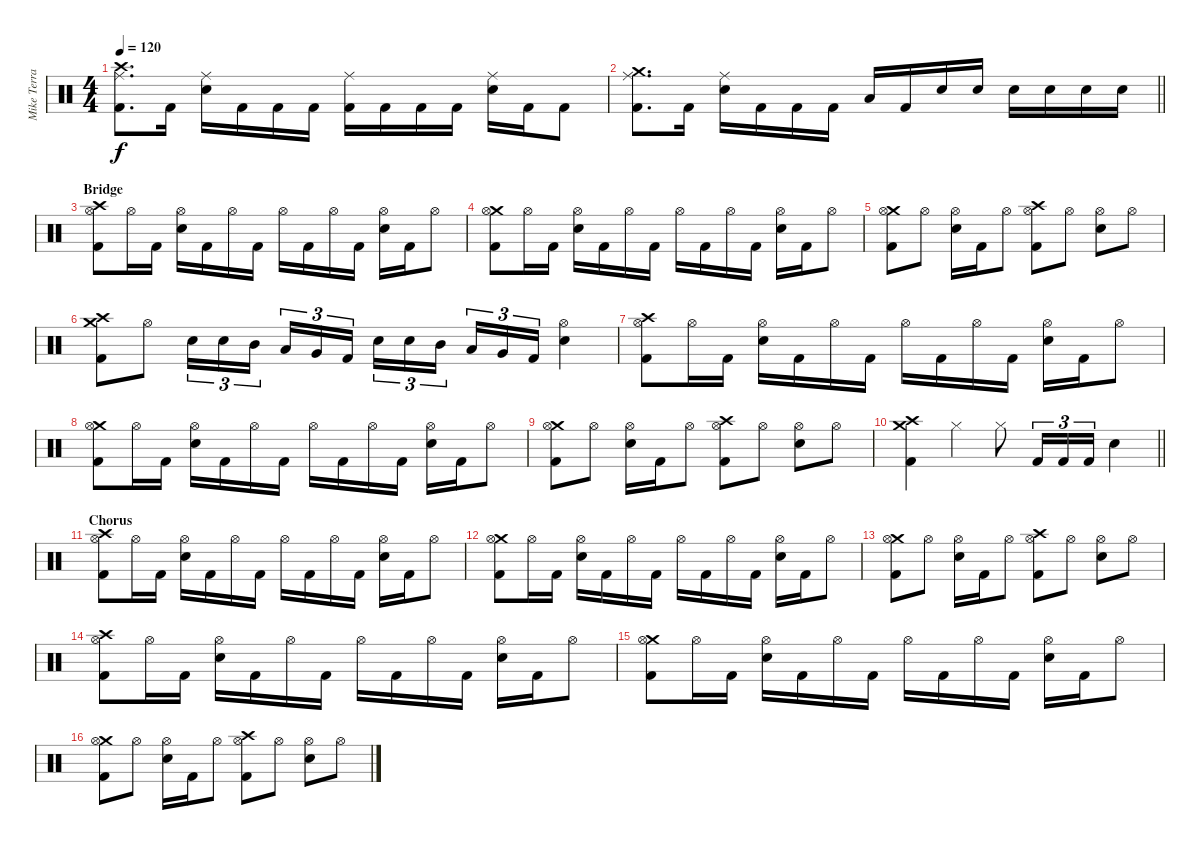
\track ("Mike Terrana" "Mike Terra") {instrument percussion}
\staff {score}
\articulation defaults
\ts (4 4)
\tempo 120
\clef neutral
\ks c
("Crash high (hit)" "Ride (middle)" "Kick (hit) 2").8{d dy f} "Kick (hit) 2".16 ("Ride (middle)" "Snare (hit) 2").16 "Kick (hit) 2".16 "Kick (hit) 2".16 "Kick (hit) 2".16 ("Ride (middle)" "Kick (hit) 2").16 "Kick (hit) 2".16 "Kick (hit) 2".16 "Kick (hit) 2".16 ("Ride (middle)" "Snare (hit) 2").16 "Kick (hit) 2".16 "Kick (hit) 2".8 |
\barLineRight lightlight
("Crash medium (hit)" "Ride (middle)" "Kick (hit) 2").8{d} "Kick (hit) 2".16 ("Ride (middle)" "Snare (hit) 2").16 "Kick (hit) 2".16 "Kick (hit) 2".16 "Kick (hit) 2".16 "Low Tom (hit)".16 "Kick (hit) 2".16 "Snare (hit) 2".16 "Snare (hit) 2".16 "Snare (hit) 2".16 "Snare (hit) 2".16 "Snare (hit) 2".16 "Snare (hit) 2".16 |
\section ("" "Bridge")
("Crash high (hit)" "Hi-Hat (open)" "Kick (hit) 2").8 "Hi-Hat (open)".16 "Kick (hit) 2".16 ("Hi-Hat (open)" "Snare (hit) 2").16 "Kick (hit) 2".16 "Hi-Hat (open)".16 "Kick (hit) 2".16 "Hi-Hat (open)".16 "Kick (hit) 2".16 "Hi-Hat (open)".16 "Kick (hit) 2".16 ("Hi-Hat (open)" "Snare (hit) 2").16 "Kick (hit) 2".16 "Hi-Hat (open)".8 |
("Crash medium (hit)" "Hi-Hat (open)" "Kick (hit) 2").8 "Hi-Hat (open)".16 "Kick (hit) 2".16 ("Hi-Hat (open)" "Snare (hit) 2").16 "Kick (hit) 2".16 "Hi-Hat (open)".16 "Kick (hit) 2".16 "Hi-Hat (open)".16 "Kick (hit) 2".16 "Hi-Hat (open)".16 "Kick (hit) 2".16 ("Hi-Hat (open)" "Snare (hit) 2").16 "Kick (hit) 2".16 "Hi-Hat (open)".8 |
("Crash medium (hit)" "Hi-Hat (open)" "Kick (hit) 2").8 "Hi-Hat (open)".8 ("Hi-Hat (open)" "Snare (hit) 2").16 "Kick (hit) 2".16 "Hi-Hat (open)".8 ("Crash high (hit)" "Hi-Hat (open)" "Kick (hit) 2").8 "Hi-Hat (open)".8 ("Hi-Hat (open)" "Snare (hit) 2").8 "Hi-Hat (open)".8 |
("Crash high (hit)" "Crash medium (hit)" "Kick (hit) 2").8 "Hi-Hat (open)".8 "Snare (hit) 2".16{tu (3 2)} "Snare (hit) 2".16{tu (3 2)} "Mid Tom (hit)".16{tu (3 2) beam splitsecondary} "Low Tom (hit)".16{tu (3 2)} "Very Low Tom (hit)".16{tu (3 2)} "Kick (hit) 2".16{tu (3 2)} "Snare (hit) 2".16{tu (3 2)} "Snare (hit) 2".16{tu (3 2)} "Mid Tom (hit)".16{tu (3 2) beam splitsecondary} "Low Tom (hit)".16{tu (3 2)} "Very Low Tom (hit)".16{tu (3 2)} "Kick (hit) 2".16{tu (3 2)} ("Hi-Hat (open)" "Snare (hit) 2").4 |
("Crash high (hit)" "Hi-Hat (open)" "Kick (hit) 2").8 "Hi-Hat (open)".16 "Kick (hit) 2".16 ("Hi-Hat (open)" "Snare (hit) 2").16 "Kick (hit) 2".16 "Hi-Hat (open)".16 "Kick (hit) 2".16 "Hi-Hat (open)".16 "Kick (hit) 2".16 "Hi-Hat (open)".16 "Kick (hit) 2".16 ("Hi-Hat (open)" "Snare (hit) 2").16 "Kick (hit) 2".16 "Hi-Hat (open)".8 |
("Crash medium (hit)" "Hi-Hat (open)" "Kick (hit) 2").8 "Hi-Hat (open)".16 "Kick (hit) 2".16 ("Hi-Hat (open)" "Snare (hit) 2").16 "Kick (hit) 2".16 "Hi-Hat (open)".16 "Kick (hit) 2".16 "Hi-Hat (open)".16 "Kick (hit) 2".16 "Hi-Hat (open)".16 "Kick (hit) 2".16 ("Hi-Hat (open)" "Snare (hit) 2").16 "Kick (hit) 2".16 "Hi-Hat (open)".8 |
("Crash medium (hit)" "Hi-Hat (open)" "Kick (hit) 2").8 "Hi-Hat (open)".8 ("Hi-Hat (open)" "Snare (hit) 2").16 "Kick (hit) 2".16 "Hi-Hat (open)".8 ("Crash high (hit)" "Hi-Hat (open)" "Kick (hit) 2").8 "Hi-Hat (open)".8 ("Hi-Hat (open)" "Snare (hit) 2").8 "Hi-Hat (open)".8 |
\barLineRight lightlight
("Crash high (hit)" "Crash medium (hit)" "Kick (hit) 2").4 "Hi-Hat (closed)".4 "Hi-Hat (closed)".8 "Kick (hit) 2".16{tu (3 2)} "Kick (hit) 2".16{tu (3 2)} "Kick (hit) 2".16{tu (3 2)} "Snare (hit) 2".4 |
\section ("" "Chorus")
("Crash high (hit)" "Hi-Hat (open)" "Kick (hit) 2").8 "Hi-Hat (open)".16 "Kick (hit) 2".16 ("Hi-Hat (open)" "Snare (hit) 2").16 "Kick (hit) 2".16 "Hi-Hat (open)".16 "Kick (hit) 2".16 "Hi-Hat (open)".16 "Kick (hit) 2".16 "Hi-Hat (open)".16 "Kick (hit) 2".16 ("Hi-Hat (open)" "Snare (hit) 2").16 "Kick (hit) 2".16 "Hi-Hat (open)".8 |
("Crash medium (hit)" "Hi-Hat (open)" "Kick (hit) 2").8 "Hi-Hat (open)".16 "Kick (hit) 2".16 ("Hi-Hat (open)" "Snare (hit) 2").16 "Kick (hit) 2".16 "Hi-Hat (open)".16 "Kick (hit) 2".16 "Hi-Hat (open)".16 "Kick (hit) 2".16 "Hi-Hat (open)".16 "Kick (hit) 2".16 ("Hi-Hat (open)" "Snare (hit) 2").16 "Kick (hit) 2".16 "Hi-Hat (open)".8 |
("Crash medium (hit)" "Hi-Hat (open)" "Kick (hit) 2").8 "Hi-Hat (open)".8 ("Hi-Hat (open)" "Snare (hit) 2").16 "Kick (hit) 2".16 "Hi-Hat (open)".8 ("Crash high (hit)" "Hi-Hat (open)" "Kick (hit) 2").8 "Hi-Hat (open)".8 ("Hi-Hat (open)" "Snare (hit) 2").8 "Hi-Hat (open)".8 |
("Crash high (hit)" "Hi-Hat (open)" "Kick (hit) 2").8 "Hi-Hat (open)".16 "Kick (hit) 2".16 ("Hi-Hat (open)" "Snare (hit) 2").16 "Kick (hit) 2".16 "Hi-Hat (open)".16 "Kick (hit) 2".16 "Hi-Hat (open)".16 "Kick (hit) 2".16 "Hi-Hat (open)".16 "Kick (hit) 2".16 ("Hi-Hat (open)" "Snare (hit) 2").16 "Kick (hit) 2".16 "Hi-Hat (open)".8 |
("Crash medium (hit)" "Hi-Hat (open)" "Kick (hit) 2").8 "Hi-Hat (open)".16 "Kick (hit) 2".16 ("Hi-Hat (open)" "Snare (hit) 2").16 "Kick (hit) 2".16 "Hi-Hat (open)".16 "Kick (hit) 2".16 "Hi-Hat (open)".16 "Kick (hit) 2".16 "Hi-Hat (open)".16 "Kick (hit) 2".16 ("Hi-Hat (open)" "Snare (hit) 2").16 "Kick (hit) 2".16 "Hi-Hat (open)".8 |
("Crash medium (hit)" "Hi-Hat (open)" "Kick (hit) 2").8 "Hi-Hat (open)".8 ("Hi-Hat (open)" "Snare (hit) 2").16 "Kick (hit) 2".16 "Hi-Hat (open)".8 ("Crash high (hit)" "Hi-Hat (open)" "Kick (hit) 2").8 "Hi-Hat (open)".8 ("Hi-Hat (open)" "Snare (hit) 2").8 "Hi-Hat (open)".8
